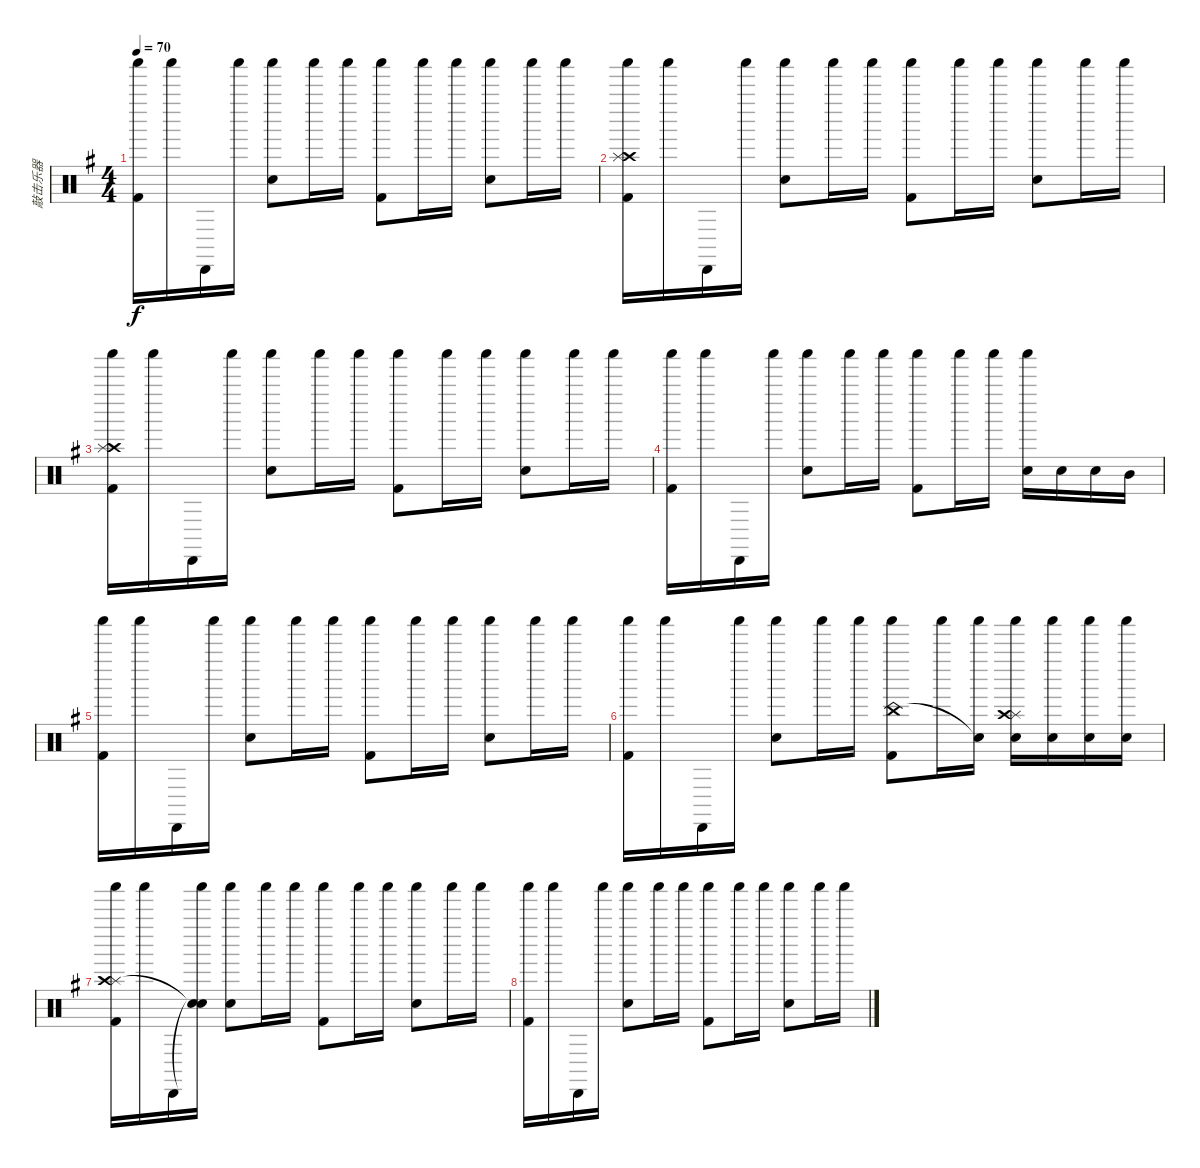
\track ("敲击乐器" "敲击乐器") {instrument percussion}
\staff {score}
\articulation defaults
\ts (4 4)
\tempo 70
\clef neutral
\ks g
("Shaker (hit)" "Kick (hit) 2").16{dy f} "Shaker (hit)".16 "Cabasa (hit)".16 "Shaker (hit)".16 ("Shaker (hit)" "Snare (hit) 2").8 "Shaker (hit)".16 "Shaker (hit)".16 ("Shaker (hit)" "Kick (hit) 2").8 "Shaker (hit)".16 "Shaker (hit)".16 ("Shaker (hit)" "Snare (hit) 2").8 "Shaker (hit)".16 "Shaker (hit)".16 |
("Crash high (hit)" "Shaker (hit)" "Splash (hit)" "Kick (hit) 2").16 "Shaker (hit)".16 "Cabasa (hit)".16 "Shaker (hit)".16 ("Shaker (hit)" "Snare (hit) 2").8 "Shaker (hit)".16 "Shaker (hit)".16 ("Shaker (hit)" "Kick (hit) 2").8 "Shaker (hit)".16 "Shaker (hit)".16 ("Shaker (hit)" "Snare (hit) 2").8 "Shaker (hit)".16 "Shaker (hit)".16 |
("Crash high (hit)" "Shaker (hit)" "Splash (hit)" "Kick (hit) 2").16 "Shaker (hit)".16 "Cabasa (hit)".16 "Shaker (hit)".16 ("Shaker (hit)" "Snare (hit) 2").8 "Shaker (hit)".16 "Shaker (hit)".16 ("Shaker (hit)" "Kick (hit) 2").8 "Shaker (hit)".16 "Shaker (hit)".16 ("Shaker (hit)" "Snare (hit) 2").8 "Shaker (hit)".16 "Shaker (hit)".16 |
("Shaker (hit)" "Kick (hit) 2").16 "Shaker (hit)".16 "Cabasa (hit)".16 "Shaker (hit)".16 ("Shaker (hit)" "Snare (hit) 2").8 "Shaker (hit)".16 "Shaker (hit)".16 ("Shaker (hit)" "Kick (hit) 2").8 "Shaker (hit)".16 "Shaker (hit)".16 ("Shaker (hit)" "Snare (hit) 2").16 "Snare (hit) 2".16 "Snare (hit) 2".16 "Mid Tom (hit)".16 |
("Shaker (hit)" "Kick (hit) 2").16 "Shaker (hit)".16 "Cabasa (hit)".16 "Shaker (hit)".16 ("Shaker (hit)" "Snare (hit) 2").8 "Shaker (hit)".16 "Shaker (hit)".16 ("Shaker (hit)" "Kick (hit) 2").8 "Shaker (hit)".16 "Shaker (hit)".16 ("Shaker (hit)" "Snare (hit) 2").8 "Shaker (hit)".16 "Shaker (hit)".16 |
("Shaker (hit)" "Kick (hit) 2").16 "Shaker (hit)".16 "Cabasa (hit)".16 "Shaker (hit)".16 ("Shaker (hit)" "Snare (hit) 2").8 "Shaker (hit)".16 "Shaker (hit)".16 ("Shaker (hit)" "China (hit)" "Kick (hit) 2").8 "Shaker (hit)".16 ("Shaker (hit)" "Snare (hit)"{t}).16 ("Splash (hit)" "Shaker (hit)" "Crash high (hit)" "Snare (hit) 2").16 ("Shaker (hit)" "Snare (hit) 2").16 ("Shaker (hit)" "Snare (hit) 2").16 ("Shaker (hit)" "Snare (hit) 2").16 |
("Splash (hit)" "Shaker (hit)" "Crash high (hit)" "Kick (hit) 2").16 "Shaker (hit)".16 "Cabasa (hit)".16 ("Snare (hit)"{t} "Shaker (hit)" "Snare (hit)"{t}).16 ("Shaker (hit)" "Snare (hit) 2").8 "Shaker (hit)".16 "Shaker (hit)".16 ("Shaker (hit)" "Kick (hit) 2").8 "Shaker (hit)".16 "Shaker (hit)".16 ("Shaker (hit)" "Snare (hit) 2").8 "Shaker (hit)".16 "Shaker (hit)".16 |
("Shaker (hit)" "Kick (hit) 2").16 "Shaker (hit)".16 "Cabasa (hit)".16 "Shaker (hit)".16 ("Shaker (hit)" "Snare (hit) 2").8 "Shaker (hit)".16 "Shaker (hit)".16 ("Shaker (hit)" "Kick (hit) 2").8 "Shaker (hit)".16 "Shaker (hit)".16 ("Shaker (hit)" "Snare (hit) 2").8 "Shaker (hit)".16 "Shaker (hit)".16
